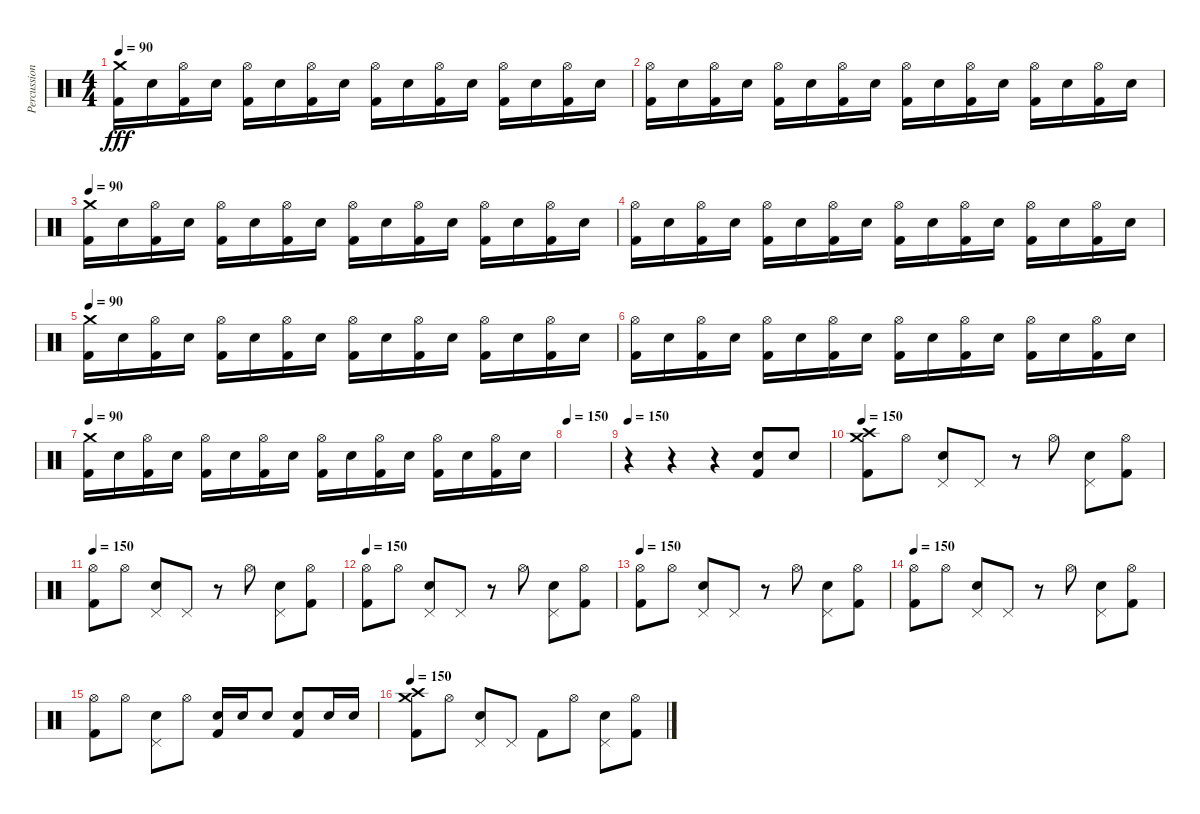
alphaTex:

\track ("Percussion" "Percussion") {instrument percussion}
\staff
\articulation defaults
\ts (4 4)
\tempo 90
\clef neutral
\ks c
("Crash medium (hit)" "Kick (hit) 2").16{dy fff} "Snare (hit) 2".16 ("Hi-Hat (open)" "Kick (hit) 2").16 "Snare (hit) 2".16 ("Hi-Hat (open)" "Kick (hit) 2").16 "Snare (hit) 2".16 ("Hi-Hat (open)" "Kick (hit) 2").16 "Snare (hit) 2".16 ("Hi-Hat (open)" "Kick (hit) 2").16 "Snare (hit) 2".16 ("Hi-Hat (open)" "Kick (hit) 2").16 "Snare (hit) 2".16 ("Hi-Hat (open)" "Kick (hit) 2").16 "Snare (hit) 2".16 ("Hi-Hat (open)" "Kick (hit) 2").16 "Snare (hit) 2".16 |
("Hi-Hat (open)" "Kick (hit) 2").16 "Snare (hit) 2".16 ("Hi-Hat (open)" "Kick (hit) 2").16 "Snare (hit) 2".16 ("Hi-Hat (open)" "Kick (hit) 2").16 "Snare (hit) 2".16 ("Hi-Hat (open)" "Kick (hit) 2").16 "Snare (hit) 2".16 ("Hi-Hat (open)" "Kick (hit) 2").16 "Snare (hit) 2".16 ("Hi-Hat (open)" "Kick (hit) 2").16 "Snare (hit) 2".16 ("Hi-Hat (open)" "Kick (hit) 2").16 "Snare (hit) 2".16 ("Hi-Hat (open)" "Kick (hit) 2").16 "Snare (hit) 2".16 |
\tempo 90
("Crash medium (hit)" "Kick (hit) 2").16 "Snare (hit) 2".16 ("Hi-Hat (open)" "Kick (hit) 2").16 "Snare (hit) 2".16 ("Hi-Hat (open)" "Kick (hit) 2").16 "Snare (hit) 2".16 ("Hi-Hat (open)" "Kick (hit) 2").16 "Snare (hit) 2".16 ("Hi-Hat (open)" "Kick (hit) 2").16 "Snare (hit) 2".16 ("Hi-Hat (open)" "Kick (hit) 2").16 "Snare (hit) 2".16 ("Hi-Hat (open)" "Kick (hit) 2").16 "Snare (hit) 2".16 ("Hi-Hat (open)" "Kick (hit) 2").16 "Snare (hit) 2".16 |
("Hi-Hat (open)" "Kick (hit) 2").16 "Snare (hit) 2".16 ("Hi-Hat (open)" "Kick (hit) 2").16 "Snare (hit) 2".16 ("Hi-Hat (open)" "Kick (hit) 2").16 "Snare (hit) 2".16 ("Hi-Hat (open)" "Kick (hit) 2").16 "Snare (hit) 2".16 ("Hi-Hat (open)" "Kick (hit) 2").16 "Snare (hit) 2".16 ("Hi-Hat (open)" "Kick (hit) 2").16 "Snare (hit) 2".16 ("Hi-Hat (open)" "Kick (hit) 2").16 "Snare (hit) 2".16 ("Hi-Hat (open)" "Kick (hit) 2").16 "Snare (hit) 2".16 |
\tempo 90
("Crash medium (hit)" "Kick (hit) 2").16 "Snare (hit) 2".16 ("Hi-Hat (open)" "Kick (hit) 2").16 "Snare (hit) 2".16 ("Hi-Hat (open)" "Kick (hit) 2").16 "Snare (hit) 2".16 ("Hi-Hat (open)" "Kick (hit) 2").16 "Snare (hit) 2".16 ("Hi-Hat (open)" "Kick (hit) 2").16 "Snare (hit) 2".16 ("Hi-Hat (open)" "Kick (hit) 2").16 "Snare (hit) 2".16 ("Hi-Hat (open)" "Kick (hit) 2").16 "Snare (hit) 2".16 ("Hi-Hat (open)" "Kick (hit) 2").16 "Snare (hit) 2".16 |
("Hi-Hat (open)" "Kick (hit) 2").16 "Snare (hit) 2".16 ("Hi-Hat (open)" "Kick (hit) 2").16 "Snare (hit) 2".16 ("Hi-Hat (open)" "Kick (hit) 2").16 "Snare (hit) 2".16 ("Hi-Hat (open)" "Kick (hit) 2").16 "Snare (hit) 2".16 ("Hi-Hat (open)" "Kick (hit) 2").16 "Snare (hit) 2".16 ("Hi-Hat (open)" "Kick (hit) 2").16 "Snare (hit) 2".16 ("Hi-Hat (open)" "Kick (hit) 2").16 "Snare (hit) 2".16 ("Hi-Hat (open)" "Kick (hit) 2").16 "Snare (hit) 2".16 |
\tempo 90
("Crash medium (hit)" "Kick (hit) 2").16 "Snare (hit) 2".16 ("Hi-Hat (open)" "Kick (hit) 2").16 "Snare (hit) 2".16 ("Hi-Hat (open)" "Kick (hit) 2").16 "Snare (hit) 2".16 ("Hi-Hat (open)" "Kick (hit) 2").16 "Snare (hit) 2".16 ("Hi-Hat (open)" "Kick (hit) 2").16 "Snare (hit) 2".16 ("Hi-Hat (open)" "Kick (hit) 2").16 "Snare (hit) 2".16 ("Hi-Hat (open)" "Kick (hit) 2").16 "Snare (hit) 2".16 ("Hi-Hat (open)" "Kick (hit) 2").16 "Snare (hit) 2".16 |
\tempo 150
|
\tempo 150
r.4 r.4 r.4 ("Snare (hit) 2" "Kick (hit) 2").8 "Snare (hit) 2".8 |
\tempo 150
("Crash high (hit)" "Crash medium (hit)" "Kick (hit) 2").8 "Hi-Hat (open)".8 ("Pedal Hi-Hat (hit)" "Snare (hit) 2").8 "Pedal Hi-Hat (hit)".8 r.8 "Hi-Hat (open)".8 ("Pedal Hi-Hat (hit)" "Snare (hit) 2").8 ("Hi-Hat (open)" "Kick (hit) 2").8 |
\tempo 150
("Hi-Hat (open)" "Kick (hit) 2").8 "Hi-Hat (open)".8 ("Pedal Hi-Hat (hit)" "Snare (hit) 2").8 "Pedal Hi-Hat (hit)".8 r.8 "Hi-Hat (open)".8 ("Pedal Hi-Hat (hit)" "Snare (hit) 2").8 ("Hi-Hat (open)" "Kick (hit) 2").8 |
\tempo 150
("Hi-Hat (open)" "Kick (hit) 2").8 "Hi-Hat (open)".8 ("Pedal Hi-Hat (hit)" "Snare (hit) 2").8 "Pedal Hi-Hat (hit)".8 r.8 "Hi-Hat (open)".8 ("Pedal Hi-Hat (hit)" "Snare (hit) 2").8 ("Hi-Hat (open)" "Kick (hit) 2").8 |
\tempo 150
("Hi-Hat (open)" "Kick (hit) 2").8 "Hi-Hat (open)".8 ("Pedal Hi-Hat (hit)" "Snare (hit) 2").8 "Pedal Hi-Hat (hit)".8 r.8 "Hi-Hat (open)".8 ("Pedal Hi-Hat (hit)" "Snare (hit) 2").8 ("Hi-Hat (open)" "Kick (hit) 2").8 |
\tempo 150
("Hi-Hat (open)" "Kick (hit) 2").8 "Hi-Hat (open)".8 ("Pedal Hi-Hat (hit)" "Snare (hit) 2").8 "Pedal Hi-Hat (hit)".8 r.8 "Hi-Hat (open)".8 ("Pedal Hi-Hat (hit)" "Snare (hit) 2").8 ("Hi-Hat (open)" "Kick (hit) 2").8 |
("Hi-Hat (open)" "Kick (hit) 2").8 "Hi-Hat (open)".8 ("Pedal Hi-Hat (hit)" "Snare (hit) 2").8 "Hi-Hat (open)".8 ("Snare (hit) 2" "Kick (hit) 2").16 "Snare (hit) 2".16 "Snare (hit) 2".8 ("Snare (hit) 2" "Kick (hit) 2").8 "Snare (hit) 2".16 "Snare (hit) 2".16 |
\tempo 150
("Crash high (hit)" "Crash medium (hit)" "Kick (hit) 2").8 "Hi-Hat (open)".8 ("Pedal Hi-Hat (hit)" "Snare (hit) 2").8 "Pedal Hi-Hat (hit)".8 "Kick (hit) 2".8 "Hi-Hat (open)".8 ("Pedal Hi-Hat (hit)" "Snare (hit) 2").8 ("Hi-Hat (open)" "Kick (hit) 2").8
